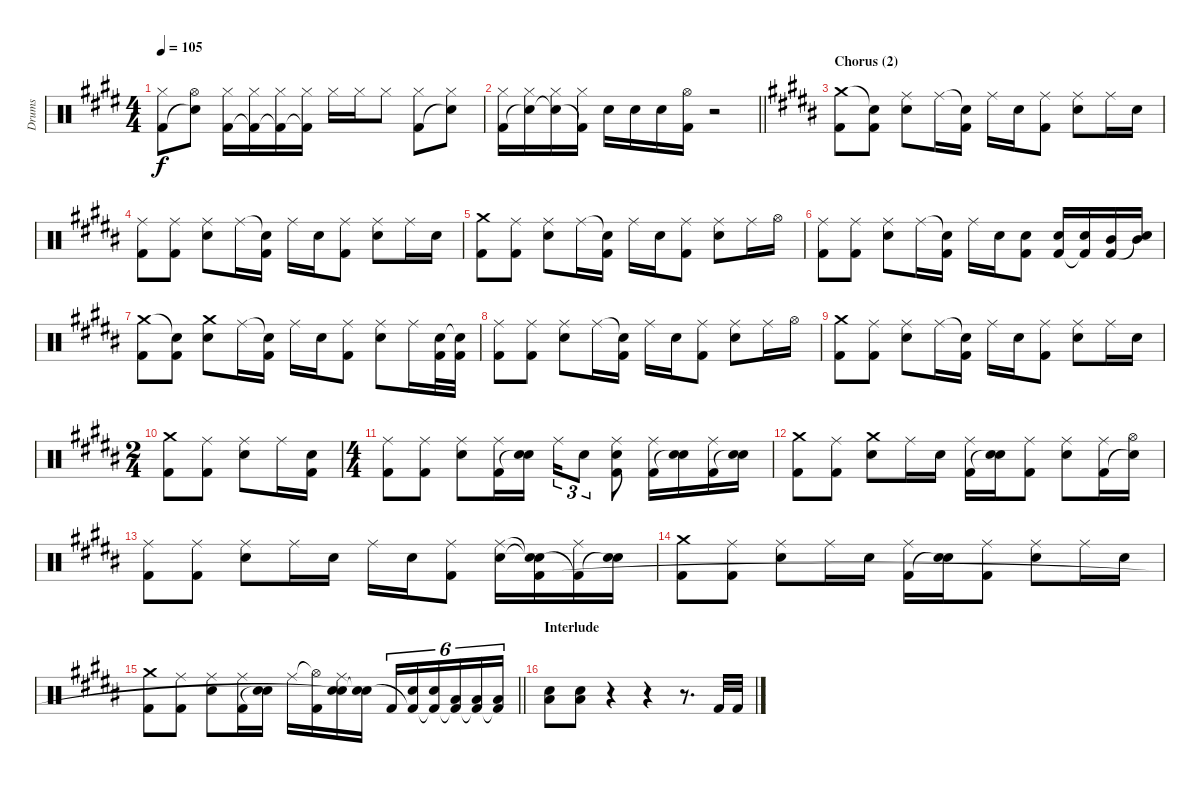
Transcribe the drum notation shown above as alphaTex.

\track ("Drums" "Drums") {instrument percussion}
\staff {score}
\articulation defaults
\ts (4 4)
\tempo 105
\clef neutral
\ks e
("Hi-Hat (closed)" "Kick (hit) 2").8{dy f} ("Hi-Hat (open)" "Snare (hit)"{t}).8 ("Hi-Hat (closed)" "Kick (hit) 2").16 ("Hi-Hat (closed)" "Kick (hit) 2"{t}).16 ("Hi-Hat (closed)" "Kick (hit) 2"{t}).16 ("Hi-Hat (closed)" "Kick (hit) 2"{t}).16 "Hi-Hat (closed)".16 "Hi-Hat (closed)".16 "Hi-Hat (closed)".8 ("Hi-Hat (closed)" "Kick (hit) 2").8 ("Hi-Hat (closed)" "Snare (hit)"{t}).8 |
\barLineRight lightlight
("Hi-Hat (closed)" "Kick (hit) 2").16 ("Hi-Hat (closed)" "Snare (hit)"{t}).16 ("Hi-Hat (closed)" "Snare (hit)"{t}).16 ("Hi-Hat (closed)" "Kick (hit) 2"{t}).16 "Electric Snare (hit)".16 "Electric Snare (hit)".16 "Electric Snare (hit)".16 ("Hi-Hat (open)" "Kick (hit) 2").16 r.2 |
\section ("" "Chorus (2)")
\ks g#minor
("Crash medium (hit)" "Kick (hit) 2").8 ("Snare (hit)"{t} "Kick (hit) 2").8 ("Ride (middle)" "Electric Snare (hit)").8 "Ride (middle)".16 ("Snare (hit)"{t} "Kick (hit) 2").16 "Ride (middle)".16 "Electric Snare (hit)".16 ("Ride (middle)" "Kick (hit) 2").8 ("Ride (middle)" "Electric Snare (hit)").8 "Ride (middle)".16 "Electric Snare (hit)".16 |
("Ride (middle)" "Kick (hit) 2").8 ("Ride (middle)" "Kick (hit) 2").8 ("Ride (middle)" "Electric Snare (hit)").8 "Ride (middle)".16 ("Snare (hit)"{t} "Kick (hit) 2").16 "Ride (middle)".16 "Electric Snare (hit)".16 ("Ride (middle)" "Kick (hit) 2").8 ("Ride (middle)" "Electric Snare (hit)").8 "Ride (middle)".16 "Electric Snare (hit)".16 |
("Crash medium (hit)" "Kick (hit) 2").8 ("Ride (middle)" "Kick (hit) 2").8 ("Ride (middle)" "Electric Snare (hit)").8 "Ride (middle)".16 ("Snare (hit)"{t} "Kick (hit) 2").16 "Ride (middle)".16 "Electric Snare (hit)".16 ("Ride (middle)" "Kick (hit) 2").8 ("Ride (middle)" "Electric Snare (hit)").8 "Ride (middle)".16 "Hi-Hat (open)".16 |
("Ride (middle)" "Kick (hit) 2").8 ("Ride (middle)" "Kick (hit) 2").8 ("Ride (middle)" "Electric Snare (hit)").8 "Ride (middle)".16 ("Snare (hit)"{t} "Kick (hit) 2").16 "Ride (middle)".16 "Electric Snare (hit)".16 ("Electric Snare (hit)" "Kick (hit) 2").8 ("Electric Snare (hit)" "Kick (hit) 2").16 ("Electric Snare (hit)" "Kick (hit) 2"{t}).16 ("Mid Tom (hit)" "Kick (hit) 2").16 ("Mid Tom (hit)" "Snare (hit)"{t}).16 |
("Crash medium (hit)" "Kick (hit) 2").8 ("Snare (hit)"{t} "Kick (hit) 2").8 ("Crash medium (hit)" "Electric Snare (hit)").8 "Ride (middle)".16 ("Snare (hit)"{t} "Kick (hit) 2").16 "Ride (middle)".16 "Electric Snare (hit)".16 ("Ride (middle)" "Kick (hit) 2").8 ("Ride (middle)" "Electric Snare (hit)").8 "Ride (middle)".16 ("Electric Snare (hit)" "Kick (hit) 2").32 ("Snare (hit)"{t} "Kick (hit) 2").32 |
("Ride (middle)" "Kick (hit) 2").8 ("Ride (middle)" "Kick (hit) 2").8 ("Ride (middle)" "Electric Snare (hit)").8 "Ride (middle)".16 ("Snare (hit)"{t} "Kick (hit) 2").16 "Ride (middle)".16 "Electric Snare (hit)".16 ("Ride (middle)" "Kick (hit) 2").8 ("Ride (middle)" "Electric Snare (hit)").8 "Ride (middle)".16 "Hi-Hat (open)".16 |
("Crash medium (hit)" "Kick (hit) 2").8 ("Ride (middle)" "Kick (hit) 2").8 ("Ride (middle)" "Electric Snare (hit)").8 "Ride (middle)".16 ("Snare (hit)"{t} "Kick (hit) 2").16 "Ride (middle)".16 "Electric Snare (hit)".16 ("Ride (middle)" "Kick (hit) 2").8 ("Ride (middle)" "Electric Snare (hit)").8 "Ride (middle)".16 "Electric Snare (hit)".16 |
\ts (2 4)
("Crash medium (hit)" "Kick (hit) 2").8 ("Ride (middle)" "Kick (hit) 2").8 ("Ride (middle)" "Electric Snare (hit)").8 "Ride (middle)".16 ("Electric Snare (hit)" "Kick (hit) 2").16 |
\ts (4 4)
("Ride (middle)" "Kick (hit) 2").8 ("Ride (middle)" "Kick (hit) 2").8 ("Ride (middle)" "Electric Snare (hit)").8 ("Ride (middle)" "Kick (hit) 2").16 ("Electric Snare (hit)" "Snare (hit)"{t}).16 "Ride (middle)".16{tu (3 2)} "Electric Snare (hit)".8{tu (3 2)} ("Ride (middle)" "Electric Snare (hit)" "Kick (hit) 2").8 ("Ride (middle)" "Kick (hit) 2").16 ("Electric Snare (hit)" "Snare (hit)"{t}).16 ("Ride (middle)" "Kick (hit) 2").16 ("Electric Snare (hit)" "Snare (hit)"{t}).16 |
("Crash medium (hit)" "Kick (hit) 2").8 ("Ride (middle)" "Kick (hit) 2").8 ("Crash medium (hit)" "Electric Snare (hit)").8 "Ride (middle)".16 "Electric Snare (hit)".16 ("Ride (middle)" "Kick (hit) 2").16 ("Electric Snare (hit)" "Snare (hit)"{t}).16 ("Ride (middle)" "Kick (hit) 2").8 ("Ride (middle)" "Electric Snare (hit)").8 ("Ride (middle)" "Kick (hit) 2").16 ("Hi-Hat (open)" "Snare (hit)"{t}).16 |
("Ride (middle)" "Kick (hit) 2").8 ("Ride (middle)" "Kick (hit) 2").8 ("Ride (middle)" "Electric Snare (hit)").8 "Ride (middle)".16 "Electric Snare (hit)".16 "Ride (middle)".16 "Electric Snare (hit)".16 ("Ride (middle)" "Kick (hit) 2").8 ("Ride (middle)" "Electric Snare (hit)").16 ("Snare (hit)"{t} "Electric Snare (hit)"{t} "Kick (hit) 2").16 ("Ride (middle)" "Kick (hit) 2"{t}).16 ("Electric Snare (hit)" "Snare (hit)"{t}).16 |
("Crash medium (hit)" "Kick (hit) 2").8 ("Ride (middle)" "Kick (hit) 2").8 ("Ride (middle)" "Electric Snare (hit)").8 "Ride (middle)".16 "Electric Snare (hit)".16 ("Ride (middle)" "Kick (hit) 2").16 ("Electric Snare (hit)" "Snare (hit)"{t}).16 ("Ride (middle)" "Kick (hit) 2").8 ("Ride (middle)" "Electric Snare (hit)").8 "Ride (middle)".16 "Electric Snare (hit)".16 |
\barLineRight lightlight
("Crash medium (hit)" "Kick (hit) 2").8 ("Ride (middle)" "Kick (hit) 2").8 ("Ride (middle)" "Electric Snare (hit)").8 ("Ride (middle)" "Kick (hit) 2").16 ("Electric Snare (hit)" "Snare (hit)"{t}).16 "Ride (middle)".16 ("Hi-Hat (open)"{t} "Kick (hit) 2").16 ("Ride (middle)" "Electric Snare (hit)" "Snare (hit)"{t}).16 ("Electric Snare (hit)" "Snare (hit)"{t}).16 "Kick (hit) 2".16{tu (6 4)} ("Electric Snare (hit)" "Kick (hit) 2"{t}).16{tu (6 4)} ("Electric Snare (hit)" "Kick (hit) 2"{t}).16{tu (6 4)} ("Low Tom (hit)" "Kick (hit) 2"{t}).16{tu (6 4)} ("Low Tom (hit)" "Kick (hit) 2"{t}).16{tu (6 4)} ("Low Tom (hit)" "Kick (hit) 2"{t}).16{tu (6 4)} |
\section ("" "Interlude")
("Electric Snare (hit)" "Low Floor Tom (hit)").8 ("Electric Snare (hit)" "Low Floor Tom (hit)").8 r.4 r.4 r.8{d} "Kick (hit) 2".32 "Kick (hit) 2".32
